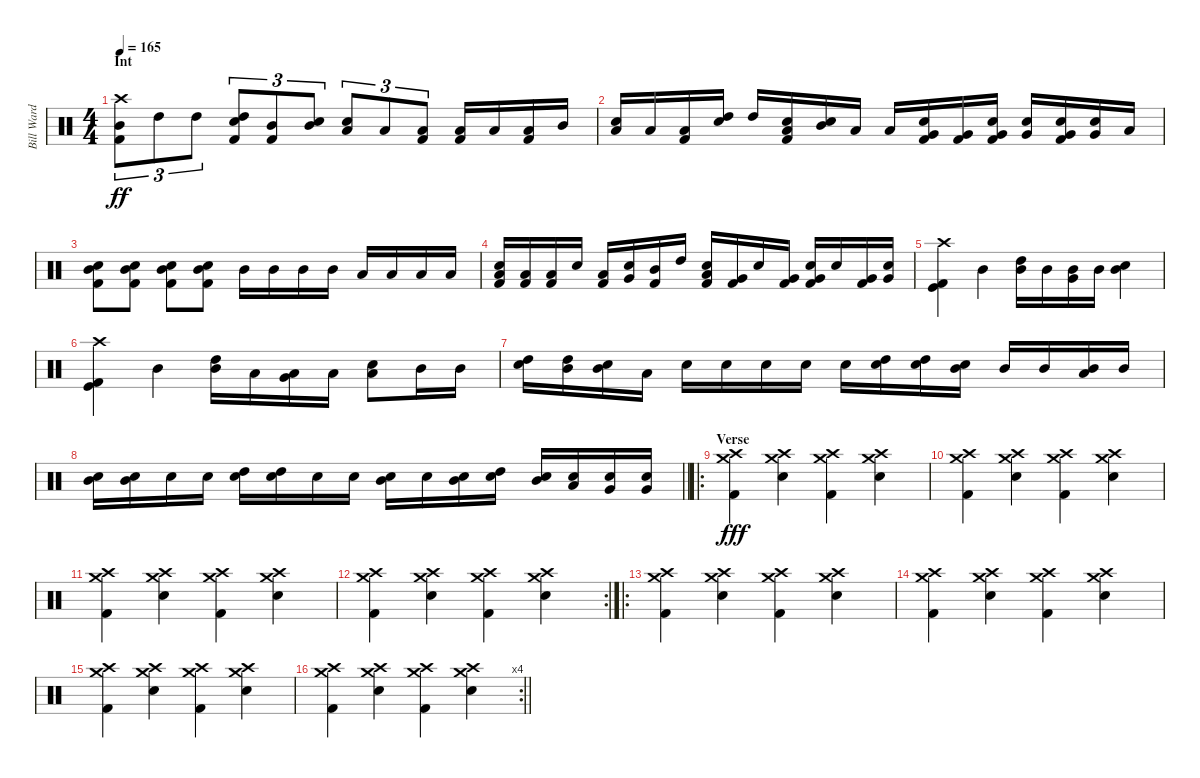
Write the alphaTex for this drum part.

\track ("Bill Ward" "Bill Ward") {instrument percussion}
\staff {score}
\articulation defaults
\ts (4 4)
\section ("" "Int")
\tempo 165
\clef neutral
\ks c
("Crash high (hit)" "Mid Tom (hit)" "Kick (hit) 2").8{tu (3 2) dy ff} "High Tom (hit)".8{tu (3 2)} "High Tom (hit)".8{tu (3 2)} ("High Tom (hit)" "Snare (hit) 2" "Kick (hit) 2").8{tu (3 2)} ("Mid Tom (hit)" "Kick (hit) 2").8{tu (3 2)} ("Mid Tom (hit)" "Snare (hit) 2").8{tu (3 2)} ("Low Tom (hit)" "Snare (hit) 2").8{tu (3 2)} "Low Tom (hit)".8{tu (3 2)} ("Low Tom (hit)" "Kick (hit) 2").8{tu (3 2)} ("Low Tom (hit)" "Kick (hit) 2").16 "Low Tom (hit)".16 ("Low Tom (hit)" "Kick (hit) 2").16 "Mid Tom (hit)".16 |
("Low Tom (hit)" "Snare (hit) 2").16 "Low Tom (hit)".16 ("Low Tom (hit)" "Kick (hit) 2").16 ("High Tom (hit)" "Snare (hit) 2").16 "High Tom (hit)".16 ("Low Tom (hit)" "Snare (hit) 2" "Kick (hit) 2").16 ("Mid Tom (hit)" "Snare (hit) 2").16 "Low Tom (hit)".16 "Low Tom (hit)".16 ("Very Low Tom (hit)" "Snare (hit) 2" "Kick (hit) 2").16 ("Very Low Tom (hit)" "Kick (hit) 2").16 ("Very Low Tom (hit)" "Snare (hit) 2" "Kick (hit) 2").16 ("Very Low Tom (hit)" "Snare (hit) 2").16 ("Very Low Tom (hit)" "Snare (hit) 2" "Kick (hit) 2").16 ("Very Low Tom (hit)" "Snare (hit) 2").16 "Low Tom (hit)".16 |
("Mid Tom (hit)" "Snare (hit) 2" "Kick (hit) 2").8 ("Mid Tom (hit)" "Snare (hit) 2" "Kick (hit) 2").8 ("Mid Tom (hit)" "Snare (hit) 2" "Kick (hit) 2").8 ("Mid Tom (hit)" "Snare (hit) 2" "Kick (hit) 2").8 "Mid Tom (hit)".16 "Mid Tom (hit)".16 "Mid Tom (hit)".16 "Mid Tom (hit)".16 "Low Tom (hit)".16 "Low Tom (hit)".16 "Low Tom (hit)".16 "Low Tom (hit)".16 |
("Low Tom (hit)" "Snare (hit) 2" "Kick (hit) 2").16 ("Low Tom (hit)" "Kick (hit) 2").16 ("Low Tom (hit)" "Kick (hit) 2").16 "Snare (hit) 2".16 ("Low Tom (hit)" "Kick (hit) 2").16 ("Very Low Tom (hit)" "Snare (hit) 2").16 ("Mid Tom (hit)" "Kick (hit) 2").16 "High Tom (hit)".16 ("Low Tom (hit)" "Snare (hit) 2" "Kick (hit) 2").16 ("Very Low Tom (hit)" "Kick (hit) 2").16 "Snare (hit) 2".16 ("Very Low Tom (hit)" "Kick (hit) 2").16 ("Very Low Tom (hit)" "Snare (hit) 2" "Kick (hit) 2").16 "Snare (hit) 2".16 ("Very Low Tom (hit)" "Kick (hit) 2").16 ("Very Low Tom (hit)" "Snare (hit) 2").16 |
("Crash high (hit)" "Kick (hit)" "Kick (hit) 2").4 "Mid Tom (hit)".4 ("High Tom (hit)" "Mid Tom (hit)").16 "Mid Tom (hit)".16 ("Very Low Tom (hit)" "Mid Tom (hit)").16 "Mid Tom (hit)".16 ("Snare (hit) 2" "Mid Tom (hit)").4 |
("Crash high (hit)" "Kick (hit)" "Kick (hit) 2").4 "Mid Tom (hit)".4 ("High Tom (hit)" "Mid Tom (hit)").16 "Low Tom (hit)".16 ("Very Low Tom (hit)" "Low Tom (hit)").16 "Low Tom (hit)".16 ("Snare (hit) 2" "Low Tom (hit)").8 "Mid Tom (hit)".16 "Mid Tom (hit)".16 |
("High Tom (hit)" "Snare (hit) 2").16 ("High Tom (hit)" "Mid Tom (hit)").16 ("Mid Tom (hit)" "Snare (hit) 2").16 "Low Tom (hit)".16 "Snare (hit) 2".16 "Snare (hit) 2".16 "Electric Snare (hit)".16 "Electric Snare (hit)".16 "Snare (hit) 2".16 ("High Tom (hit)" "Electric Snare (hit)").16 ("High Tom (hit)" "Snare (hit) 2").16 ("Mid Tom (hit)" "Snare (hit) 2").16 "Mid Tom (hit)".16 "Mid Tom (hit)".16 ("Mid Tom (hit)" "Low Tom (hit)").16 "Mid Tom (hit)".16 |
\barLineRight lightlight
("Mid Tom (hit)" "Snare (hit) 2").16 ("Mid Tom (hit)" "Snare (hit) 2").16 "Snare (hit) 2".16 "Electric Snare (hit)".16 ("High Tom (hit)" "Electric Snare (hit)").16 ("High Tom (hit)" "Snare (hit) 2").16 "Electric Snare (hit)".16 "Snare (hit) 2".16 ("Mid Tom (hit)" "Snare (hit) 2").16 "Electric Snare (hit)".16 ("Mid Tom (hit)" "Snare (hit) 2").16 ("High Tom (hit)" "Snare (hit) 2").16 ("Mid Tom (hit)" "Electric Snare (hit)").16 ("Low Tom (hit)" "Snare (hit) 2").16 ("Very Low Tom (hit)" "Snare (hit) 2").16 ("Very Low Tom (hit)" "Snare (hit) 2").16 |
\ro
\section ("" "Verse")
("Crash high (hit)" "Crash medium (hit)" "Kick (hit) 2").4{dy fff} ("Crash high (hit)" "Crash medium (hit)" "Snare (hit) 2").4 ("Crash high (hit)" "Crash medium (hit)" "Kick (hit) 2").4 ("Crash high (hit)" "Crash medium (hit)" "Snare (hit) 2").4 |
("Crash high (hit)" "Crash medium (hit)" "Kick (hit) 2").4 ("Crash high (hit)" "Crash medium (hit)" "Snare (hit) 2").4 ("Crash high (hit)" "Crash medium (hit)" "Kick (hit) 2").4 ("Crash high (hit)" "Crash medium (hit)" "Snare (hit) 2").4 |
("Crash high (hit)" "Crash medium (hit)" "Kick (hit) 2").4 ("Crash high (hit)" "Crash medium (hit)" "Snare (hit) 2").4 ("Crash high (hit)" "Crash medium (hit)" "Kick (hit) 2").4 ("Crash high (hit)" "Crash medium (hit)" "Snare (hit) 2").4 |
\rc 2
("Crash high (hit)" "Crash medium (hit)" "Kick (hit) 2").4 ("Crash high (hit)" "Crash medium (hit)" "Snare (hit) 2").4 ("Crash high (hit)" "Crash medium (hit)" "Kick (hit) 2").4 ("Crash high (hit)" "Crash medium (hit)" "Snare (hit) 2").4 |
\ro
("Crash high (hit)" "Crash medium (hit)" "Kick (hit) 2").4 ("Crash high (hit)" "Crash medium (hit)" "Snare (hit) 2").4 ("Crash high (hit)" "Crash medium (hit)" "Kick (hit) 2").4 ("Crash high (hit)" "Crash medium (hit)" "Snare (hit) 2").4 |
("Crash high (hit)" "Crash medium (hit)" "Kick (hit) 2").4 ("Crash high (hit)" "Crash medium (hit)" "Snare (hit) 2").4 ("Crash high (hit)" "Crash medium (hit)" "Kick (hit) 2").4 ("Crash high (hit)" "Crash medium (hit)" "Snare (hit) 2").4 |
("Crash high (hit)" "Crash medium (hit)" "Kick (hit) 2").4 ("Crash high (hit)" "Crash medium (hit)" "Snare (hit) 2").4 ("Crash high (hit)" "Crash medium (hit)" "Kick (hit) 2").4 ("Crash high (hit)" "Crash medium (hit)" "Snare (hit) 2").4 |
\rc 4
\barLineRight lightlight
("Crash high (hit)" "Crash medium (hit)" "Kick (hit) 2").4 ("Crash high (hit)" "Crash medium (hit)" "Snare (hit) 2").4 ("Crash high (hit)" "Crash medium (hit)" "Kick (hit) 2").4 ("Crash high (hit)" "Crash medium (hit)" "Snare (hit) 2").4
